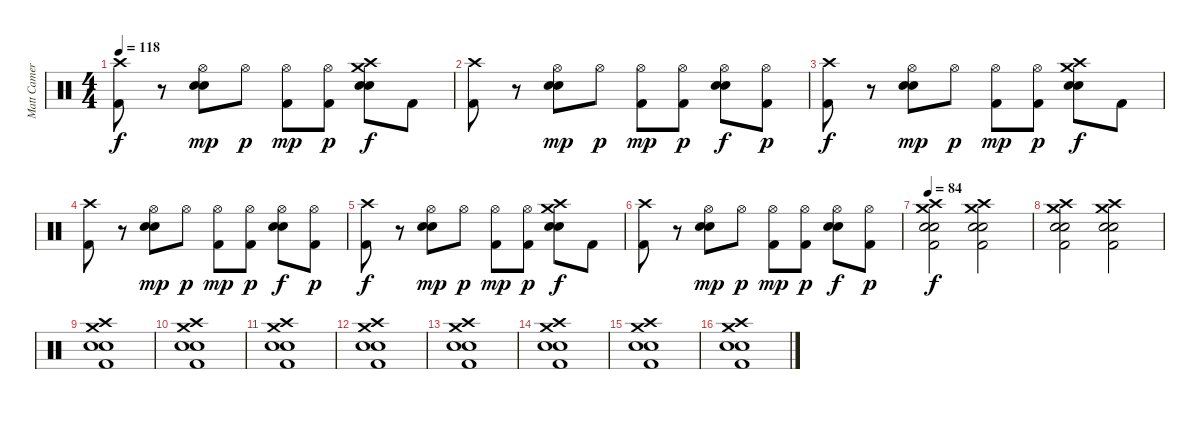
\track ("Matt Cameron" "Matt Camer") {instrument percussion}
\staff
\articulation defaults
\ts (4 4)
\tempo 118
\clef neutral
\ks c
("Crash high (hit)" "Kick (hit) 2").8{dy f} r.8 ("Hi-Hat (open)" "Electric Snare (hit)" "Snare (hit) 2").8{dy mp} "Hi-Hat (open)".8{dy p} ("Hi-Hat (open)" "Kick (hit) 2").8{dy mp} ("Hi-Hat (open)" "Kick (hit) 2").8{dy p} ("Crash medium (hit)" "Crash high (hit)" "Electric Snare (hit)" "Snare (hit) 2").8{dy f} "Kick (hit) 2".8 |
("Crash high (hit)" "Kick (hit) 2").8 r.8 ("Hi-Hat (open)" "Electric Snare (hit)" "Snare (hit) 2").8{dy mp} "Hi-Hat (open)".8{dy p} ("Hi-Hat (open)" "Kick (hit) 2").8{dy mp} ("Hi-Hat (open)" "Kick (hit) 2").8{dy p} ("Hi-Hat (open)" "Electric Snare (hit)" "Snare (hit) 2").8{dy f} ("Hi-Hat (open)" "Kick (hit) 2").8{dy p} |
("Crash high (hit)" "Kick (hit) 2").8{dy f} r.8 ("Hi-Hat (open)" "Electric Snare (hit)" "Snare (hit) 2").8{dy mp} "Hi-Hat (open)".8{dy p} ("Hi-Hat (open)" "Kick (hit) 2").8{dy mp} ("Hi-Hat (open)" "Kick (hit) 2").8{dy p} ("Crash medium (hit)" "Crash high (hit)" "Electric Snare (hit)" "Snare (hit) 2").8{dy f} "Kick (hit) 2".8 |
("Crash high (hit)" "Kick (hit) 2").8 r.8 ("Hi-Hat (open)" "Electric Snare (hit)" "Snare (hit) 2").8{dy mp} "Hi-Hat (open)".8{dy p} ("Hi-Hat (open)" "Kick (hit) 2").8{dy mp} ("Hi-Hat (open)" "Kick (hit) 2").8{dy p} ("Hi-Hat (open)" "Electric Snare (hit)" "Snare (hit) 2").8{dy f} ("Hi-Hat (open)" "Kick (hit) 2").8{dy p} |
("Crash high (hit)" "Kick (hit) 2").8{dy f} r.8 ("Hi-Hat (open)" "Electric Snare (hit)" "Snare (hit) 2").8{dy mp} "Hi-Hat (open)".8{dy p} ("Hi-Hat (open)" "Kick (hit) 2").8{dy mp} ("Hi-Hat (open)" "Kick (hit) 2").8{dy p} ("Crash medium (hit)" "Crash high (hit)" "Electric Snare (hit)" "Snare (hit) 2").8{dy f} "Kick (hit) 2".8 |
("Crash high (hit)" "Kick (hit) 2").8 r.8 ("Hi-Hat (open)" "Electric Snare (hit)" "Snare (hit) 2").8{dy mp} "Hi-Hat (open)".8{dy p} ("Hi-Hat (open)" "Kick (hit) 2").8{dy mp} ("Hi-Hat (open)" "Kick (hit) 2").8{dy p} ("Hi-Hat (open)" "Electric Snare (hit)" "Snare (hit) 2").8{dy f} ("Hi-Hat (open)" "Kick (hit) 2").8{dy p} |
\tempo 84
("Crash high (hit)" "Crash medium (hit)" "Electric Snare (hit)" "Snare (hit) 2" "Kick (hit) 2").2{dy f} ("Crash high (hit)" "Crash medium (hit)" "Electric Snare (hit)" "Snare (hit) 2" "Kick (hit) 2").2 |
("Crash high (hit)" "Crash medium (hit)" "Electric Snare (hit)" "Snare (hit) 2" "Kick (hit) 2").2 ("Crash high (hit)" "Crash medium (hit)" "Electric Snare (hit)" "Snare (hit) 2" "Kick (hit) 2").2 |
("Crash high (hit)" "Crash medium (hit)" "Electric Snare (hit)" "Snare (hit) 2" "Kick (hit) 2").1 |
("Crash high (hit)" "Crash medium (hit)" "Electric Snare (hit)" "Snare (hit) 2" "Kick (hit) 2").1 |
("Crash high (hit)" "Crash medium (hit)" "Electric Snare (hit)" "Snare (hit) 2" "Kick (hit) 2").1 |
("Crash high (hit)" "Crash medium (hit)" "Electric Snare (hit)" "Snare (hit) 2" "Kick (hit) 2").1 |
("Crash high (hit)" "Crash medium (hit)" "Electric Snare (hit)" "Snare (hit) 2" "Kick (hit) 2").1 |
("Crash high (hit)" "Crash medium (hit)" "Electric Snare (hit)" "Snare (hit) 2" "Kick (hit) 2").1 |
("Crash high (hit)" "Crash medium (hit)" "Electric Snare (hit)" "Snare (hit) 2" "Kick (hit) 2").1 |
("Crash high (hit)" "Crash medium (hit)" "Electric Snare (hit)" "Snare (hit) 2" "Kick (hit) 2").1
